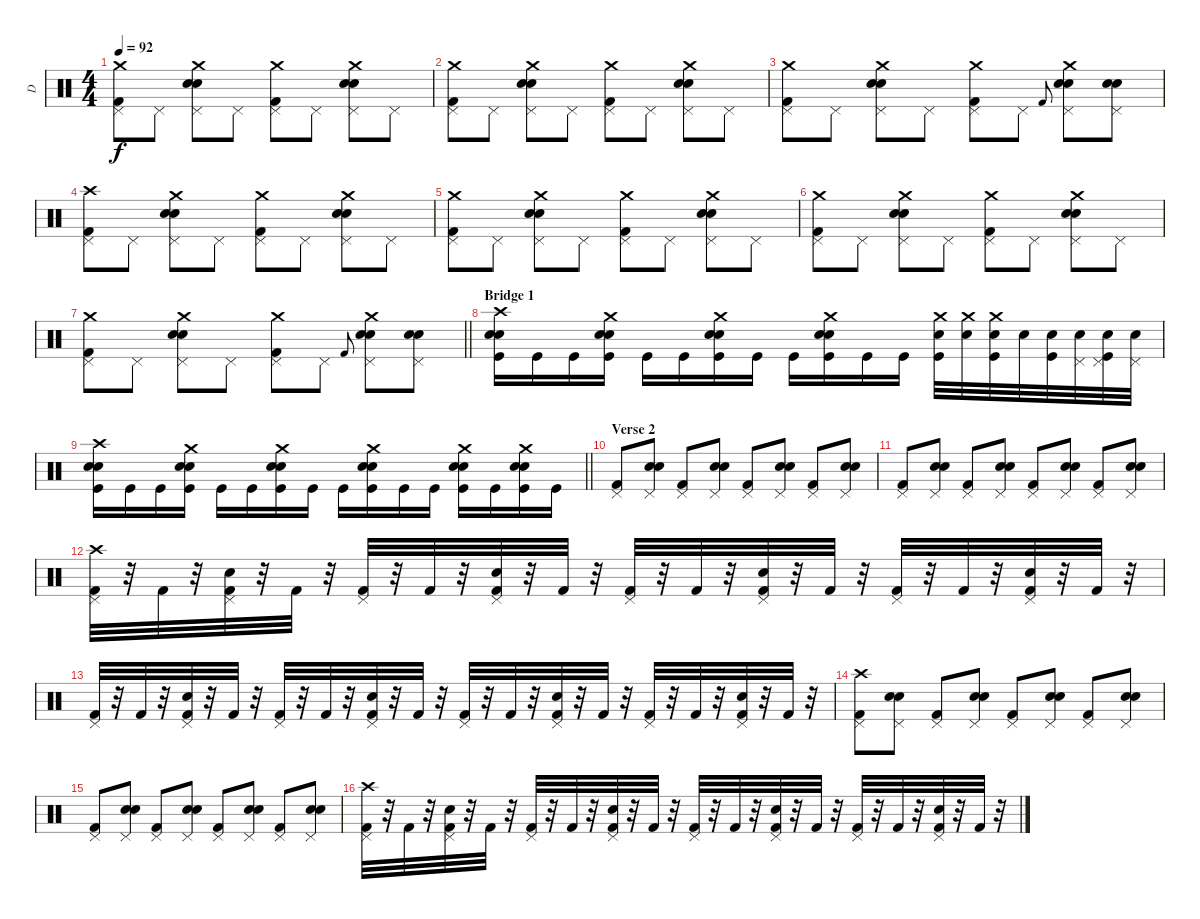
\track ("D" "D") {instrument percussion}
\staff {score}
\articulation defaults
\ts (4 4)
\tempo 92
\clef neutral
\ks c
("Crash medium (hit)" "Kick (hit) 2" "Pedal Hi-Hat (hit)").8{dy f} "Pedal Hi-Hat (hit)".8 ("Crash medium (hit)" "Electric Snare (hit)" "Electric Snare (hit)" "Pedal Hi-Hat (hit)").8 "Pedal Hi-Hat (hit)".8 ("Crash medium (hit)" "Kick (hit) 2" "Pedal Hi-Hat (hit)").8 "Pedal Hi-Hat (hit)".8 ("Crash medium (hit)" "Electric Snare (hit)" "Electric Snare (hit)" "Pedal Hi-Hat (hit)").8 "Pedal Hi-Hat (hit)".8 |
("Crash medium (hit)" "Kick (hit) 2" "Pedal Hi-Hat (hit)").8 "Pedal Hi-Hat (hit)".8 ("Crash medium (hit)" "Electric Snare (hit)" "Electric Snare (hit)" "Pedal Hi-Hat (hit)").8 "Pedal Hi-Hat (hit)".8 ("Crash medium (hit)" "Kick (hit) 2" "Pedal Hi-Hat (hit)").8 "Pedal Hi-Hat (hit)".8 ("Crash medium (hit)" "Electric Snare (hit)" "Electric Snare (hit)" "Pedal Hi-Hat (hit)").8 "Pedal Hi-Hat (hit)".8 |
("Crash medium (hit)" "Kick (hit) 2" "Pedal Hi-Hat (hit)").8 "Pedal Hi-Hat (hit)".8 ("Crash medium (hit)" "Electric Snare (hit)" "Electric Snare (hit)" "Pedal Hi-Hat (hit)").8 "Pedal Hi-Hat (hit)".8 ("Crash medium (hit)" "Kick (hit) 2" "Pedal Hi-Hat (hit)").8 "Pedal Hi-Hat (hit)".8 "Kick (hit) 2".8{gr onbeat} ("Crash medium (hit)" "Electric Snare (hit)" "Electric Snare (hit)" "Pedal Hi-Hat (hit)").8 ("Electric Snare (hit)" "Electric Snare (hit)" "Pedal Hi-Hat (hit)").8 |
("Crash high (hit)" "Kick (hit) 2" "Pedal Hi-Hat (hit)").8 "Pedal Hi-Hat (hit)".8 ("Crash medium (hit)" "Electric Snare (hit)" "Electric Snare (hit)" "Pedal Hi-Hat (hit)").8 "Pedal Hi-Hat (hit)".8 ("Crash medium (hit)" "Kick (hit) 2" "Pedal Hi-Hat (hit)").8 "Pedal Hi-Hat (hit)".8 ("Crash medium (hit)" "Electric Snare (hit)" "Electric Snare (hit)" "Pedal Hi-Hat (hit)").8 "Pedal Hi-Hat (hit)".8 |
("Crash medium (hit)" "Kick (hit) 2" "Pedal Hi-Hat (hit)").8 "Pedal Hi-Hat (hit)".8 ("Crash medium (hit)" "Electric Snare (hit)" "Electric Snare (hit)" "Pedal Hi-Hat (hit)").8 "Pedal Hi-Hat (hit)".8 ("Crash medium (hit)" "Kick (hit) 2" "Pedal Hi-Hat (hit)").8 "Pedal Hi-Hat (hit)".8 ("Crash medium (hit)" "Electric Snare (hit)" "Electric Snare (hit)" "Pedal Hi-Hat (hit)").8 "Pedal Hi-Hat (hit)".8 |
("Crash medium (hit)" "Kick (hit) 2" "Pedal Hi-Hat (hit)").8 "Pedal Hi-Hat (hit)".8 ("Crash medium (hit)" "Electric Snare (hit)" "Electric Snare (hit)" "Pedal Hi-Hat (hit)").8 "Pedal Hi-Hat (hit)".8 ("Crash medium (hit)" "Kick (hit) 2" "Pedal Hi-Hat (hit)").8 "Pedal Hi-Hat (hit)".8 ("Crash medium (hit)" "Electric Snare (hit)" "Electric Snare (hit)" "Pedal Hi-Hat (hit)").8 "Pedal Hi-Hat (hit)".8 |
\barLineRight lightlight
("Crash medium (hit)" "Kick (hit) 2" "Pedal Hi-Hat (hit)").8 "Pedal Hi-Hat (hit)".8 ("Crash medium (hit)" "Electric Snare (hit)" "Electric Snare (hit)" "Pedal Hi-Hat (hit)").8 "Pedal Hi-Hat (hit)".8 ("Crash medium (hit)" "Kick (hit) 2" "Pedal Hi-Hat (hit)").8 "Pedal Hi-Hat (hit)".8 "Kick (hit) 2".8{gr onbeat} ("Crash medium (hit)" "Electric Snare (hit)" "Electric Snare (hit)" "Pedal Hi-Hat (hit)").8 ("Electric Snare (hit)" "Electric Snare (hit)" "Pedal Hi-Hat (hit)").8 |
\section ("" "Bridge 1")
("Crash high (hit)" "Electric Snare (hit)" "Electric Snare (hit)" "Kick (hit)").16 "Kick (hit)".16 "Kick (hit)".16 ("Crash medium (hit)" "Electric Snare (hit)" "Electric Snare (hit)" "Kick (hit)").16 "Kick (hit)".16 "Kick (hit)".16 ("Crash medium (hit)" "Electric Snare (hit)" "Electric Snare (hit)" "Kick (hit)").16 "Kick (hit)".16 "Kick (hit)".16 ("Crash medium (hit)" "Electric Snare (hit)" "Electric Snare (hit)" "Kick (hit)").16 "Kick (hit)".16 "Kick (hit)".16 ("Electric Snare (hit)" "Kick (hit)" "Crash medium (hit)").32 ("Electric Snare (hit)" "Crash medium (hit)").32 ("Electric Snare (hit)" "Kick (hit)" "Crash medium (hit)").32 "Electric Snare (hit)".32 ("Electric Snare (hit)" "Kick (hit)").32 ("Electric Snare (hit)" "Pedal Hi-Hat (hit)").32 ("Electric Snare (hit)" "Kick (hit)" "Pedal Hi-Hat (hit)").32 ("Electric Snare (hit)" "Pedal Hi-Hat (hit)").32 |
\barLineRight lightlight
("Crash high (hit)" "Electric Snare (hit)" "Electric Snare (hit)" "Kick (hit)").16 "Kick (hit)".16 "Kick (hit)".16 ("Crash medium (hit)" "Electric Snare (hit)" "Electric Snare (hit)" "Kick (hit)").16 "Kick (hit)".16 "Kick (hit)".16 ("Crash medium (hit)" "Electric Snare (hit)" "Electric Snare (hit)" "Kick (hit)").16 "Kick (hit)".16 "Kick (hit)".16 ("Crash medium (hit)" "Electric Snare (hit)" "Electric Snare (hit)" "Kick (hit)").16 "Kick (hit)".16 "Kick (hit)".16 ("Crash medium (hit)" "Electric Snare (hit)" "Electric Snare (hit)" "Kick (hit)").16 "Kick (hit)".16 ("Crash medium (hit)" "Electric Snare (hit)" "Electric Snare (hit)" "Kick (hit)").16 "Kick (hit)".16 |
\section ("" "Verse 2")
("Kick (hit) 2" "Pedal Hi-Hat (hit)").8 ("Electric Snare (hit)" "Electric Snare (hit)" "Pedal Hi-Hat (hit)").8 ("Kick (hit) 2" "Pedal Hi-Hat (hit)").8 ("Electric Snare (hit)" "Electric Snare (hit)" "Pedal Hi-Hat (hit)").8 ("Kick (hit) 2" "Pedal Hi-Hat (hit)").8 ("Electric Snare (hit)" "Electric Snare (hit)" "Pedal Hi-Hat (hit)").8 ("Kick (hit) 2" "Pedal Hi-Hat (hit)").8 ("Electric Snare (hit)" "Electric Snare (hit)" "Pedal Hi-Hat (hit)").8 |
("Kick (hit) 2" "Pedal Hi-Hat (hit)").8 ("Electric Snare (hit)" "Electric Snare (hit)" "Pedal Hi-Hat (hit)").8 ("Kick (hit) 2" "Pedal Hi-Hat (hit)").8 ("Electric Snare (hit)" "Electric Snare (hit)" "Pedal Hi-Hat (hit)").8 ("Kick (hit) 2" "Pedal Hi-Hat (hit)").8 ("Electric Snare (hit)" "Electric Snare (hit)" "Pedal Hi-Hat (hit)").8 ("Kick (hit) 2" "Pedal Hi-Hat (hit)").8 ("Electric Snare (hit)" "Electric Snare (hit)" "Pedal Hi-Hat (hit)").8 |
("Crash high (hit)" "Kick (hit) 2" "Pedal Hi-Hat (hit)").32 r.32 "Kick (hit) 2".32 r.32 ("Electric Snare (hit)" "Kick (hit) 2" "Pedal Hi-Hat (hit)").32 r.32 "Kick (hit) 2".32 r.32 ("Kick (hit) 2" "Pedal Hi-Hat (hit)").32 r.32 "Kick (hit) 2".32 r.32 ("Electric Snare (hit)" "Kick (hit) 2" "Pedal Hi-Hat (hit)").32 r.32 "Kick (hit) 2".32 r.32 ("Kick (hit) 2" "Pedal Hi-Hat (hit)").32 r.32 "Kick (hit) 2".32 r.32 ("Electric Snare (hit)" "Kick (hit) 2" "Pedal Hi-Hat (hit)").32 r.32 "Kick (hit) 2".32 r.32 ("Kick (hit) 2" "Pedal Hi-Hat (hit)").32 r.32 "Kick (hit) 2".32 r.32 ("Electric Snare (hit)" "Kick (hit) 2" "Pedal Hi-Hat (hit)").32 r.32 "Kick (hit) 2".32 r.32 |
("Kick (hit) 2" "Pedal Hi-Hat (hit)").32 r.32 "Kick (hit) 2".32 r.32 ("Electric Snare (hit)" "Kick (hit) 2" "Pedal Hi-Hat (hit)").32 r.32 "Kick (hit) 2".32 r.32 ("Kick (hit) 2" "Pedal Hi-Hat (hit)").32 r.32 "Kick (hit) 2".32 r.32 ("Electric Snare (hit)" "Kick (hit) 2" "Pedal Hi-Hat (hit)").32 r.32 "Kick (hit) 2".32 r.32 ("Kick (hit) 2" "Pedal Hi-Hat (hit)").32 r.32 "Kick (hit) 2".32 r.32 ("Electric Snare (hit)" "Kick (hit) 2" "Pedal Hi-Hat (hit)").32 r.32 "Kick (hit) 2".32 r.32 ("Kick (hit) 2" "Pedal Hi-Hat (hit)").32 r.32 "Kick (hit) 2".32 r.32 ("Electric Snare (hit)" "Kick (hit) 2" "Pedal Hi-Hat (hit)").32 r.32 "Kick (hit) 2".32 r.32 |
("Crash high (hit)" "Kick (hit) 2" "Pedal Hi-Hat (hit)").8 ("Electric Snare (hit)" "Electric Snare (hit)" "Pedal Hi-Hat (hit)").8 ("Kick (hit) 2" "Pedal Hi-Hat (hit)").8 ("Electric Snare (hit)" "Electric Snare (hit)" "Pedal Hi-Hat (hit)").8 ("Kick (hit) 2" "Pedal Hi-Hat (hit)").8 ("Electric Snare (hit)" "Electric Snare (hit)" "Pedal Hi-Hat (hit)").8 ("Kick (hit) 2" "Pedal Hi-Hat (hit)").8 ("Electric Snare (hit)" "Electric Snare (hit)" "Pedal Hi-Hat (hit)").8 |
("Kick (hit) 2" "Pedal Hi-Hat (hit)").8 ("Electric Snare (hit)" "Electric Snare (hit)" "Pedal Hi-Hat (hit)").8 ("Kick (hit) 2" "Pedal Hi-Hat (hit)").8 ("Electric Snare (hit)" "Electric Snare (hit)" "Pedal Hi-Hat (hit)").8 ("Kick (hit) 2" "Pedal Hi-Hat (hit)").8 ("Electric Snare (hit)" "Electric Snare (hit)" "Pedal Hi-Hat (hit)").8 ("Kick (hit) 2" "Pedal Hi-Hat (hit)").8 ("Electric Snare (hit)" "Electric Snare (hit)" "Pedal Hi-Hat (hit)").8 |
("Crash high (hit)" "Kick (hit) 2" "Pedal Hi-Hat (hit)").32 r.32 "Kick (hit) 2".32 r.32 ("Electric Snare (hit)" "Kick (hit) 2" "Pedal Hi-Hat (hit)").32 r.32 "Kick (hit) 2".32 r.32 ("Kick (hit) 2" "Pedal Hi-Hat (hit)").32 r.32 "Kick (hit) 2".32 r.32 ("Electric Snare (hit)" "Kick (hit) 2" "Pedal Hi-Hat (hit)").32 r.32 "Kick (hit) 2".32 r.32 ("Kick (hit) 2" "Pedal Hi-Hat (hit)").32 r.32 "Kick (hit) 2".32 r.32 ("Electric Snare (hit)" "Kick (hit) 2" "Pedal Hi-Hat (hit)").32 r.32 "Kick (hit) 2".32 r.32 ("Kick (hit) 2" "Pedal Hi-Hat (hit)").32 r.32 "Kick (hit) 2".32 r.32 ("Electric Snare (hit)" "Kick (hit) 2" "Pedal Hi-Hat (hit)").32 r.32 "Kick (hit) 2".32 r.32
